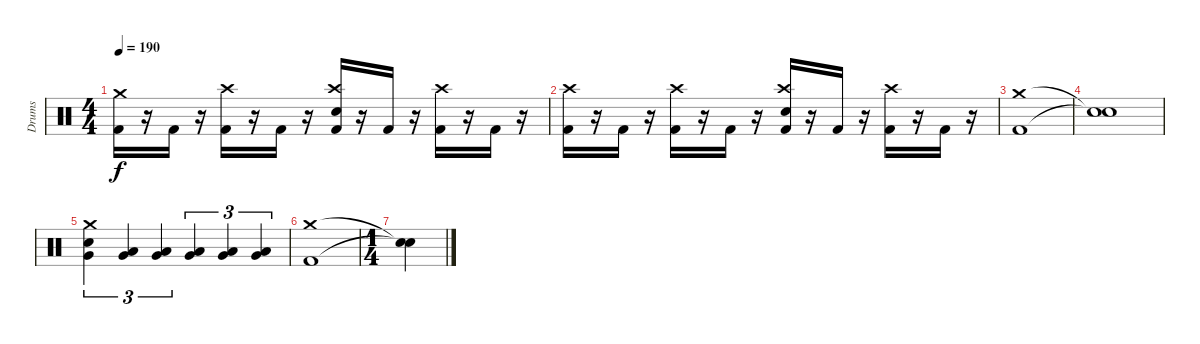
\track ("Drums" "Drums") {instrument percussion}
\staff {score}
\articulation defaults
\ts (4 4)
\tempo 190
\clef neutral
\ks c
("Crash medium (hit)" "Kick (hit) 2").16{dy f} r.16 "Kick (hit) 2".16 r.16 ("Crash high (hit)" "Kick (hit) 2").16 r.16 "Kick (hit) 2".16 r.16 ("Crash high (hit)" "Electric Snare (hit)" "Kick (hit) 2").16 r.16 "Kick (hit) 2".16 r.16 ("Crash high (hit)" "Kick (hit) 2").16 r.16 "Kick (hit) 2".16 r.16 |
("Crash high (hit)" "Kick (hit) 2").16 r.16 "Kick (hit) 2".16 r.16 ("Crash high (hit)" "Kick (hit) 2").16 r.16 "Kick (hit) 2".16 r.16 ("Crash high (hit)" "Electric Snare (hit)" "Kick (hit) 2").16 r.16 "Kick (hit) 2".16 r.16 ("Crash high (hit)" "Kick (hit) 2").16 r.16 "Kick (hit) 2".16 r.16 |
("Crash medium (hit)" "Kick (hit) 2").1 |
("Snare (hit)"{t} "Snare (hit)"{t}).1 |
("Crash medium (hit)" "Electric Snare (hit)" "Very Low Tom (hit)").4{tu (3 2)} ("Very Low Tom (hit)" "Low Floor Tom (hit)").4{tu (3 2)} ("Very Low Tom (hit)" "Low Floor Tom (hit)").4{tu (3 2)} ("Very Low Tom (hit)" "Low Floor Tom (hit)").4{tu (3 2)} ("Very Low Tom (hit)" "Low Floor Tom (hit)").4{tu (3 2)} ("Very Low Tom (hit)" "Low Floor Tom (hit)").4{tu (3 2)} |
("Crash medium (hit)" "Kick (hit) 2").1 |
\ts (1 4)
("Snare (hit)"{t} "Snare (hit)"{t}).4
